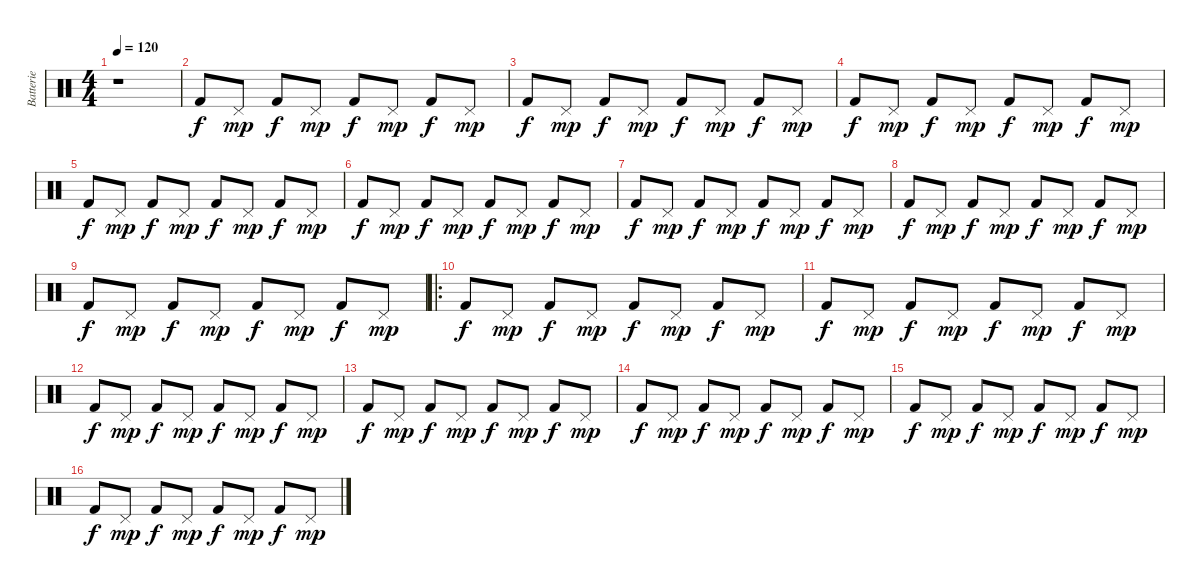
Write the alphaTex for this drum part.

\track ("Batterie" "Batterie") {instrument percussion}
\staff {score}
\articulation defaults
\ts (4 4)
\tempo 120
\clef neutral
\ks c
r.1{dy f} |
"Kick (hit) 2".8 "Pedal Hi-Hat (hit)".8{dy mp} "Kick (hit) 2".8{dy f} "Pedal Hi-Hat (hit)".8{dy mp} "Kick (hit) 2".8{dy f} "Pedal Hi-Hat (hit)".8{dy mp} "Kick (hit) 2".8{dy f} "Pedal Hi-Hat (hit)".8{dy mp} |
"Kick (hit) 2".8{dy f} "Pedal Hi-Hat (hit)".8{dy mp} "Kick (hit) 2".8{dy f} "Pedal Hi-Hat (hit)".8{dy mp} "Kick (hit) 2".8{dy f} "Pedal Hi-Hat (hit)".8{dy mp} "Kick (hit) 2".8{dy f} "Pedal Hi-Hat (hit)".8{dy mp} |
"Kick (hit) 2".8{dy f} "Pedal Hi-Hat (hit)".8{dy mp} "Kick (hit) 2".8{dy f} "Pedal Hi-Hat (hit)".8{dy mp} "Kick (hit) 2".8{dy f} "Pedal Hi-Hat (hit)".8{dy mp} "Kick (hit) 2".8{dy f} "Pedal Hi-Hat (hit)".8{dy mp} |
"Kick (hit) 2".8{dy f} "Pedal Hi-Hat (hit)".8{dy mp} "Kick (hit) 2".8{dy f} "Pedal Hi-Hat (hit)".8{dy mp} "Kick (hit) 2".8{dy f} "Pedal Hi-Hat (hit)".8{dy mp} "Kick (hit) 2".8{dy f} "Pedal Hi-Hat (hit)".8{dy mp} |
"Kick (hit) 2".8{dy f} "Pedal Hi-Hat (hit)".8{dy mp} "Kick (hit) 2".8{dy f} "Pedal Hi-Hat (hit)".8{dy mp} "Kick (hit) 2".8{dy f} "Pedal Hi-Hat (hit)".8{dy mp} "Kick (hit) 2".8{dy f} "Pedal Hi-Hat (hit)".8{dy mp} |
"Kick (hit) 2".8{dy f} "Pedal Hi-Hat (hit)".8{dy mp} "Kick (hit) 2".8{dy f} "Pedal Hi-Hat (hit)".8{dy mp} "Kick (hit) 2".8{dy f} "Pedal Hi-Hat (hit)".8{dy mp} "Kick (hit) 2".8{dy f} "Pedal Hi-Hat (hit)".8{dy mp} |
"Kick (hit) 2".8{dy f} "Pedal Hi-Hat (hit)".8{dy mp} "Kick (hit) 2".8{dy f} "Pedal Hi-Hat (hit)".8{dy mp} "Kick (hit) 2".8{dy f} "Pedal Hi-Hat (hit)".8{dy mp} "Kick (hit) 2".8{dy f} "Pedal Hi-Hat (hit)".8{dy mp} |
"Kick (hit) 2".8{dy f} "Pedal Hi-Hat (hit)".8{dy mp} "Kick (hit) 2".8{dy f} "Pedal Hi-Hat (hit)".8{dy mp} "Kick (hit) 2".8{dy f} "Pedal Hi-Hat (hit)".8{dy mp} "Kick (hit) 2".8{dy f} "Pedal Hi-Hat (hit)".8{dy mp} |
\ro "Kick (hit) 2".8{dy f} "Pedal Hi-Hat (hit)".8{dy mp} "Kick (hit) 2".8{dy f} "Pedal Hi-Hat (hit)".8{dy mp} "Kick (hit) 2".8{dy f} "Pedal Hi-Hat (hit)".8{dy mp} "Kick (hit) 2".8{dy f} "Pedal Hi-Hat (hit)".8{dy mp}
|
"Kick (hit) 2".8{dy f} "Pedal Hi-Hat (hit)".8{dy mp} "Kick (hit) 2".8{dy f} "Pedal Hi-Hat (hit)".8{dy mp} "Kick (hit) 2".8{dy f} "Pedal Hi-Hat (hit)".8{dy mp} "Kick (hit) 2".8{dy f} "Pedal Hi-Hat (hit)".8{dy mp} |
"Kick (hit) 2".8{dy f} "Pedal Hi-Hat (hit)".8{dy mp} "Kick (hit) 2".8{dy f} "Pedal Hi-Hat (hit)".8{dy mp} "Kick (hit) 2".8{dy f} "Pedal Hi-Hat (hit)".8{dy mp} "Kick (hit) 2".8{dy f} "Pedal Hi-Hat (hit)".8{dy mp} |
"Kick (hit) 2".8{dy f} "Pedal Hi-Hat (hit)".8{dy mp} "Kick (hit) 2".8{dy f} "Pedal Hi-Hat (hit)".8{dy mp} "Kick (hit) 2".8{dy f} "Pedal Hi-Hat (hit)".8{dy mp} "Kick (hit) 2".8{dy f} "Pedal Hi-Hat (hit)".8{dy mp} |
"Kick (hit) 2".8{dy f} "Pedal Hi-Hat (hit)".8{dy mp} "Kick (hit) 2".8{dy f} "Pedal Hi-Hat (hit)".8{dy mp} "Kick (hit) 2".8{dy f} "Pedal Hi-Hat (hit)".8{dy mp} "Kick (hit) 2".8{dy f} "Pedal Hi-Hat (hit)".8{dy mp} |
"Kick (hit) 2".8{dy f} "Pedal Hi-Hat (hit)".8{dy mp} "Kick (hit) 2".8{dy f} "Pedal Hi-Hat (hit)".8{dy mp} "Kick (hit) 2".8{dy f} "Pedal Hi-Hat (hit)".8{dy mp} "Kick (hit) 2".8{dy f} "Pedal Hi-Hat (hit)".8{dy mp} |
"Kick (hit) 2".8{dy f} "Pedal Hi-Hat (hit)".8{dy mp} "Kick (hit) 2".8{dy f} "Pedal Hi-Hat (hit)".8{dy mp} "Kick (hit) 2".8{dy f} "Pedal Hi-Hat (hit)".8{dy mp} "Kick (hit) 2".8{dy f} "Pedal Hi-Hat (hit)".8{dy mp}
